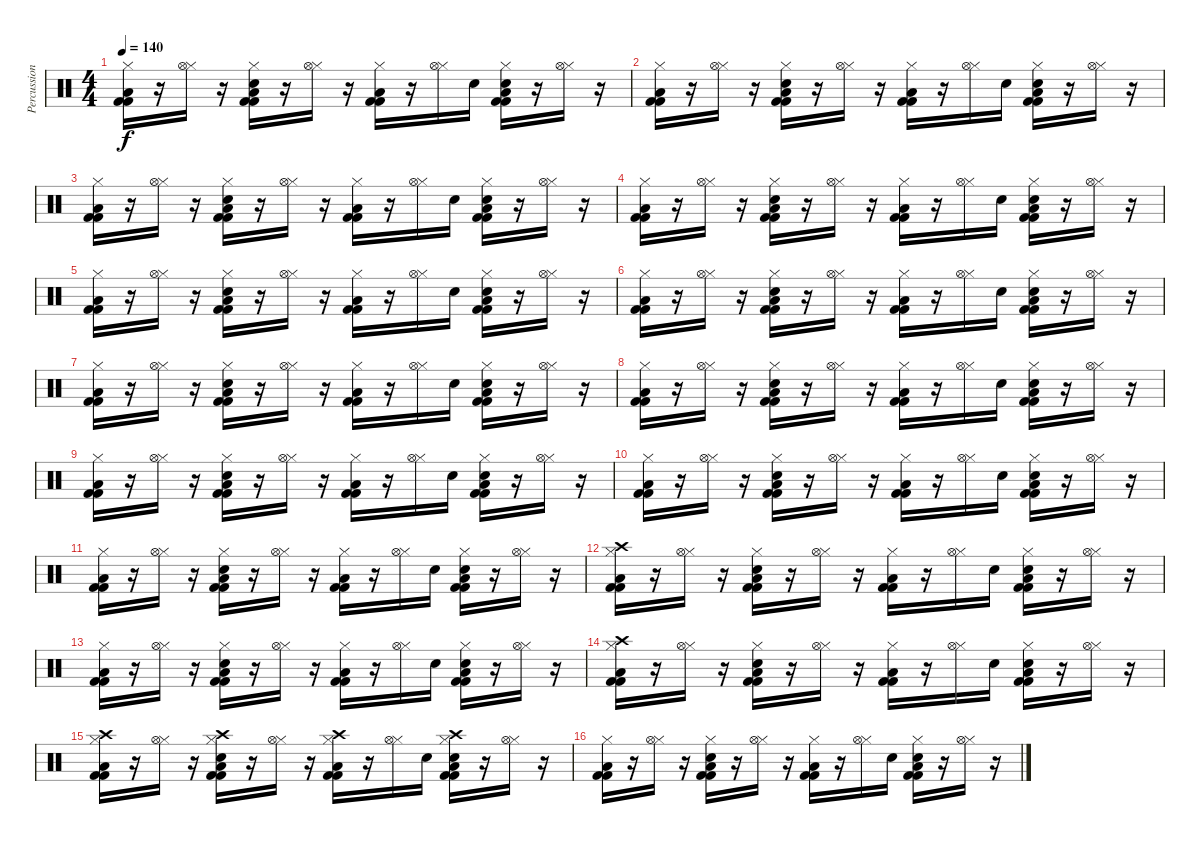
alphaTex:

\track ("Percussion" "Percussion") {instrument percussion}
\staff {score}
\articulation defaults
\ts (4 4)
\tempo 140
\clef neutral
\ks c
("Hi-Hat (closed)" "Low Tom (hit)" "Kick (hit) 2" "Kick (hit) 2").16{dy f} r.16 ("Hi-Hat (closed)" "Hi-Hat (open)").16 r.16 ("Hi-Hat (closed)" "Low Tom (hit)" "Kick (hit) 2" "Kick (hit) 2" "Hand Clap (hit)").16 r.16 ("Hi-Hat (closed)" "Hi-Hat (open)").16 r.16 ("Hi-Hat (closed)" "Low Tom (hit)" "Kick (hit) 2" "Kick (hit) 2").16 r.16 ("Hi-Hat (closed)" "Hi-Hat (open)").16 "Hand Clap (hit)".16 ("Hi-Hat (closed)" "Low Tom (hit)" "Kick (hit) 2" "Kick (hit) 2" "Hand Clap (hit)").16 r.16 ("Hi-Hat (closed)" "Hi-Hat (open)").16 r.16 |
("Hi-Hat (closed)" "Low Tom (hit)" "Kick (hit) 2" "Kick (hit) 2").16 r.16 ("Hi-Hat (closed)" "Hi-Hat (open)").16 r.16 ("Hi-Hat (closed)" "Low Tom (hit)" "Kick (hit) 2" "Kick (hit) 2" "Hand Clap (hit)").16 r.16 ("Hi-Hat (closed)" "Hi-Hat (open)").16 r.16 ("Hi-Hat (closed)" "Low Tom (hit)" "Kick (hit) 2" "Kick (hit) 2").16 r.16 ("Hi-Hat (closed)" "Hi-Hat (open)").16 "Hand Clap (hit)".16 ("Hi-Hat (closed)" "Low Tom (hit)" "Kick (hit) 2" "Kick (hit) 2" "Hand Clap (hit)").16 r.16 ("Hi-Hat (closed)" "Hi-Hat (open)").16 r.16 |
("Hi-Hat (closed)" "Low Tom (hit)" "Kick (hit) 2" "Kick (hit) 2").16 r.16 ("Hi-Hat (closed)" "Hi-Hat (open)").16 r.16 ("Hi-Hat (closed)" "Low Tom (hit)" "Kick (hit) 2" "Kick (hit) 2" "Hand Clap (hit)").16 r.16 ("Hi-Hat (closed)" "Hi-Hat (open)").16 r.16 ("Hi-Hat (closed)" "Low Tom (hit)" "Kick (hit) 2" "Kick (hit) 2").16 r.16 ("Hi-Hat (closed)" "Hi-Hat (open)").16 "Hand Clap (hit)".16 ("Hi-Hat (closed)" "Low Tom (hit)" "Kick (hit) 2" "Kick (hit) 2" "Hand Clap (hit)").16 r.16 ("Hi-Hat (closed)" "Hi-Hat (open)").16 r.16 |
("Hi-Hat (closed)" "Low Tom (hit)" "Kick (hit) 2" "Kick (hit) 2").16 r.16 ("Hi-Hat (closed)" "Hi-Hat (open)").16 r.16 ("Hi-Hat (closed)" "Low Tom (hit)" "Kick (hit) 2" "Kick (hit) 2" "Hand Clap (hit)").16 r.16 ("Hi-Hat (closed)" "Hi-Hat (open)").16 r.16 ("Hi-Hat (closed)" "Low Tom (hit)" "Kick (hit) 2" "Kick (hit) 2").16 r.16 ("Hi-Hat (closed)" "Hi-Hat (open)").16 "Hand Clap (hit)".16 ("Hi-Hat (closed)" "Low Tom (hit)" "Kick (hit) 2" "Kick (hit) 2" "Hand Clap (hit)").16 r.16 ("Hi-Hat (closed)" "Hi-Hat (open)").16 r.16 |
("Hi-Hat (closed)" "Low Tom (hit)" "Kick (hit) 2" "Kick (hit) 2").16 r.16 ("Hi-Hat (closed)" "Hi-Hat (open)").16 r.16 ("Hi-Hat (closed)" "Low Tom (hit)" "Kick (hit) 2" "Kick (hit) 2" "Hand Clap (hit)").16 r.16 ("Hi-Hat (closed)" "Hi-Hat (open)").16 r.16 ("Hi-Hat (closed)" "Low Tom (hit)" "Kick (hit) 2" "Kick (hit) 2").16 r.16 ("Hi-Hat (closed)" "Hi-Hat (open)").16 "Hand Clap (hit)".16 ("Hi-Hat (closed)" "Low Tom (hit)" "Kick (hit) 2" "Kick (hit) 2" "Hand Clap (hit)").16 r.16 ("Hi-Hat (closed)" "Hi-Hat (open)").16 r.16 |
("Hi-Hat (closed)" "Low Tom (hit)" "Kick (hit) 2" "Kick (hit) 2").16 r.16 ("Hi-Hat (closed)" "Hi-Hat (open)").16 r.16 ("Hi-Hat (closed)" "Low Tom (hit)" "Kick (hit) 2" "Kick (hit) 2" "Hand Clap (hit)").16 r.16 ("Hi-Hat (closed)" "Hi-Hat (open)").16 r.16 ("Hi-Hat (closed)" "Low Tom (hit)" "Kick (hit) 2" "Kick (hit) 2").16 r.16 ("Hi-Hat (closed)" "Hi-Hat (open)").16 "Hand Clap (hit)".16 ("Hi-Hat (closed)" "Low Tom (hit)" "Kick (hit) 2" "Kick (hit) 2" "Hand Clap (hit)").16 r.16 ("Hi-Hat (closed)" "Hi-Hat (open)").16 r.16 |
("Hi-Hat (closed)" "Low Tom (hit)" "Kick (hit) 2" "Kick (hit) 2").16 r.16 ("Hi-Hat (closed)" "Hi-Hat (open)").16 r.16 ("Hi-Hat (closed)" "Low Tom (hit)" "Kick (hit) 2" "Kick (hit) 2" "Hand Clap (hit)").16 r.16 ("Hi-Hat (closed)" "Hi-Hat (open)").16 r.16 ("Hi-Hat (closed)" "Low Tom (hit)" "Kick (hit) 2" "Kick (hit) 2").16 r.16 ("Hi-Hat (closed)" "Hi-Hat (open)").16 "Hand Clap (hit)".16 ("Hi-Hat (closed)" "Low Tom (hit)" "Kick (hit) 2" "Kick (hit) 2" "Hand Clap (hit)").16 r.16 ("Hi-Hat (closed)" "Hi-Hat (open)").16 r.16 |
("Hi-Hat (closed)" "Low Tom (hit)" "Kick (hit) 2" "Kick (hit) 2").16 r.16 ("Hi-Hat (closed)" "Hi-Hat (open)").16 r.16 ("Hi-Hat (closed)" "Low Tom (hit)" "Kick (hit) 2" "Kick (hit) 2" "Hand Clap (hit)").16 r.16 ("Hi-Hat (closed)" "Hi-Hat (open)").16 r.16 ("Hi-Hat (closed)" "Low Tom (hit)" "Kick (hit) 2" "Kick (hit) 2").16 r.16 ("Hi-Hat (closed)" "Hi-Hat (open)").16 "Hand Clap (hit)".16 ("Hi-Hat (closed)" "Low Tom (hit)" "Kick (hit) 2" "Kick (hit) 2" "Hand Clap (hit)").16 r.16 ("Hi-Hat (closed)" "Hi-Hat (open)").16 r.16 |
("Hi-Hat (closed)" "Low Tom (hit)" "Kick (hit) 2" "Kick (hit) 2").16 r.16 ("Hi-Hat (closed)" "Hi-Hat (open)").16 r.16 ("Hi-Hat (closed)" "Low Tom (hit)" "Kick (hit) 2" "Kick (hit) 2" "Hand Clap (hit)").16 r.16 ("Hi-Hat (closed)" "Hi-Hat (open)").16 r.16 ("Hi-Hat (closed)" "Low Tom (hit)" "Kick (hit) 2" "Kick (hit) 2").16 r.16 ("Hi-Hat (closed)" "Hi-Hat (open)").16 "Hand Clap (hit)".16 ("Hi-Hat (closed)" "Low Tom (hit)" "Kick (hit) 2" "Kick (hit) 2" "Hand Clap (hit)").16 r.16 ("Hi-Hat (closed)" "Hi-Hat (open)").16 r.16 |
("Hi-Hat (closed)" "Low Tom (hit)" "Kick (hit) 2" "Kick (hit) 2").16 r.16 ("Hi-Hat (closed)" "Hi-Hat (open)").16 r.16 ("Hi-Hat (closed)" "Low Tom (hit)" "Kick (hit) 2" "Kick (hit) 2" "Hand Clap (hit)").16 r.16 ("Hi-Hat (closed)" "Hi-Hat (open)").16 r.16 ("Hi-Hat (closed)" "Low Tom (hit)" "Kick (hit) 2" "Kick (hit) 2").16 r.16 ("Hi-Hat (closed)" "Hi-Hat (open)").16 "Hand Clap (hit)".16 ("Hi-Hat (closed)" "Low Tom (hit)" "Kick (hit) 2" "Kick (hit) 2" "Hand Clap (hit)").16 r.16 ("Hi-Hat (closed)" "Hi-Hat (open)").16 r.16 |
("Hi-Hat (closed)" "Low Tom (hit)" "Kick (hit) 2" "Kick (hit) 2").16 r.16 ("Hi-Hat (closed)" "Hi-Hat (open)").16 r.16 ("Hi-Hat (closed)" "Low Tom (hit)" "Kick (hit) 2" "Kick (hit) 2" "Hand Clap (hit)").16 r.16 ("Hi-Hat (closed)" "Hi-Hat (open)").16 r.16 ("Hi-Hat (closed)" "Low Tom (hit)" "Kick (hit) 2" "Kick (hit) 2").16 r.16 ("Hi-Hat (closed)" "Hi-Hat (open)").16 "Hand Clap (hit)".16 ("Hi-Hat (closed)" "Low Tom (hit)" "Kick (hit) 2" "Kick (hit) 2" "Hand Clap (hit)").16 r.16 ("Hi-Hat (closed)" "Hi-Hat (open)").16 r.16 |
("Hi-Hat (closed)" "Low Tom (hit)" "Kick (hit) 2" "Kick (hit) 2" "Crash high (hit)").16 r.16 ("Hi-Hat (closed)" "Hi-Hat (open)").16 r.16 ("Hi-Hat (closed)" "Low Tom (hit)" "Kick (hit) 2" "Kick (hit) 2" "Hand Clap (hit)").16 r.16 ("Hi-Hat (closed)" "Hi-Hat (open)").16 r.16 ("Hi-Hat (closed)" "Low Tom (hit)" "Kick (hit) 2" "Kick (hit) 2").16 r.16 ("Hi-Hat (closed)" "Hi-Hat (open)").16 "Hand Clap (hit)".16 ("Hi-Hat (closed)" "Low Tom (hit)" "Kick (hit) 2" "Kick (hit) 2" "Hand Clap (hit)").16 r.16 ("Hi-Hat (closed)" "Hi-Hat (open)").16 r.16 |
("Hi-Hat (closed)" "Low Tom (hit)" "Kick (hit) 2" "Kick (hit) 2").16 r.16 ("Hi-Hat (closed)" "Hi-Hat (open)").16 r.16 ("Hi-Hat (closed)" "Low Tom (hit)" "Kick (hit) 2" "Kick (hit) 2" "Hand Clap (hit)").16 r.16 ("Hi-Hat (closed)" "Hi-Hat (open)").16 r.16 ("Hi-Hat (closed)" "Low Tom (hit)" "Kick (hit) 2" "Kick (hit) 2").16 r.16 ("Hi-Hat (closed)" "Hi-Hat (open)").16 "Hand Clap (hit)".16 ("Hi-Hat (closed)" "Low Tom (hit)" "Kick (hit) 2" "Kick (hit) 2" "Hand Clap (hit)").16 r.16 ("Hi-Hat (closed)" "Hi-Hat (open)").16 r.16 |
("Hi-Hat (closed)" "Low Tom (hit)" "Kick (hit) 2" "Kick (hit) 2" "Crash high (hit)").16 r.16 ("Hi-Hat (closed)" "Hi-Hat (open)").16 r.16 ("Hi-Hat (closed)" "Low Tom (hit)" "Kick (hit) 2" "Kick (hit) 2" "Hand Clap (hit)").16 r.16 ("Hi-Hat (closed)" "Hi-Hat (open)").16 r.16 ("Hi-Hat (closed)" "Low Tom (hit)" "Kick (hit) 2" "Kick (hit) 2").16 r.16 ("Hi-Hat (closed)" "Hi-Hat (open)").16 "Hand Clap (hit)".16 ("Hi-Hat (closed)" "Low Tom (hit)" "Kick (hit) 2" "Kick (hit) 2" "Hand Clap (hit)").16 r.16 ("Hi-Hat (closed)" "Hi-Hat (open)").16 r.16 |
("Hi-Hat (closed)" "Low Tom (hit)" "Kick (hit) 2" "Kick (hit) 2" "Crash high (hit)").16 r.16 ("Hi-Hat (closed)" "Hi-Hat (open)").16 r.16 ("Hi-Hat (closed)" "Low Tom (hit)" "Kick (hit) 2" "Kick (hit) 2" "Hand Clap (hit)" "Crash high (hit)").16 r.16 ("Hi-Hat (closed)" "Hi-Hat (open)").16 r.16 ("Hi-Hat (closed)" "Low Tom (hit)" "Kick (hit) 2" "Kick (hit) 2" "Crash high (hit)").16 r.16 ("Hi-Hat (closed)" "Hi-Hat (open)").16 "Hand Clap (hit)".16 ("Hi-Hat (closed)" "Low Tom (hit)" "Kick (hit) 2" "Kick (hit) 2" "Hand Clap (hit)" "Crash high (hit)").16 r.16 ("Hi-Hat (closed)" "Hi-Hat (open)").16 r.16 |
("Hi-Hat (closed)" "Low Tom (hit)" "Kick (hit) 2" "Kick (hit) 2").16 r.16 ("Hi-Hat (closed)" "Hi-Hat (open)").16 r.16 ("Hi-Hat (closed)" "Low Tom (hit)" "Kick (hit) 2" "Kick (hit) 2" "Hand Clap (hit)").16 r.16 ("Hi-Hat (closed)" "Hi-Hat (open)").16 r.16 ("Hi-Hat (closed)" "Low Tom (hit)" "Kick (hit) 2" "Kick (hit) 2").16 r.16 ("Hi-Hat (closed)" "Hi-Hat (open)").16 "Hand Clap (hit)".16 ("Hi-Hat (closed)" "Low Tom (hit)" "Kick (hit) 2" "Kick (hit) 2" "Hand Clap (hit)").16 r.16 ("Hi-Hat (closed)" "Hi-Hat (open)").16 r.16
